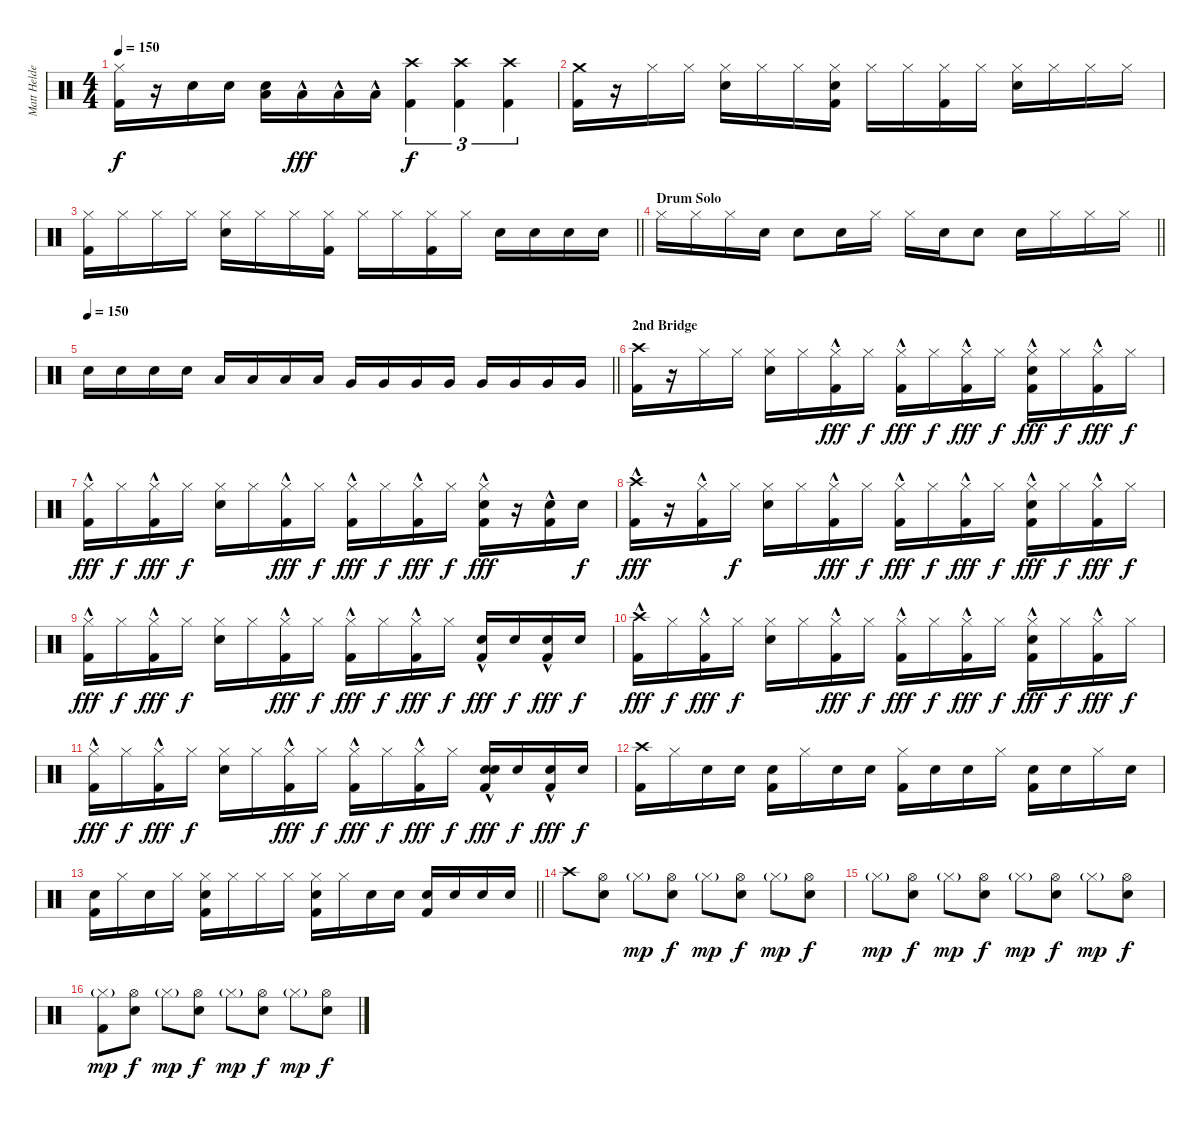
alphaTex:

\track ("Matt Helders" "Matt Helde") {instrument percussion}
\staff {score}
\articulation defaults
\ts (4 4)
\tempo 150
\clef neutral
\ks c
("Hi-Hat (closed)" "Kick (hit) 2").16{dy f} r.16 "Snare (hit) 2".16 "Snare (hit) 2".16 ("Low Tom (hit)" "Snare (hit) 2").16 "Low Tom (hit)"{hac}.16{dy fff} "Low Tom (hit)"{hac}.16 "Low Tom (hit)"{hac}.16 ("Kick (hit) 2" "Crash high (hit)").4{tu (3 2) dy f} ("Kick (hit) 2" "Crash high (hit)").4{tu (3 2)} ("Kick (hit) 2" "Crash high (hit)").4{tu (3 2)} |
("Crash medium (hit)" "Kick (hit) 2").16 r.16 "Hi-Hat (closed)".16 "Hi-Hat (closed)".16 ("Hi-Hat (closed)" "Snare (hit) 2").16 "Hi-Hat (closed)".16 "Hi-Hat (closed)".16 ("Hi-Hat (closed)" "Snare (hit) 2" "Kick (hit) 2").16 "Hi-Hat (closed)".16 "Hi-Hat (closed)".16 ("Hi-Hat (closed)" "Kick (hit) 2").16 "Hi-Hat (closed)".16 ("Hi-Hat (closed)" "Snare (hit) 2").16 "Hi-Hat (closed)".16 "Hi-Hat (closed)".16 "Hi-Hat (closed)".16 |
\barLineRight lightlight
("Hi-Hat (closed)" "Kick (hit) 2").16 "Hi-Hat (closed)".16 "Hi-Hat (closed)".16 "Hi-Hat (closed)".16 ("Hi-Hat (closed)" "Snare (hit) 2").16 "Hi-Hat (closed)".16 "Hi-Hat (closed)".16 ("Hi-Hat (closed)" "Kick (hit) 2").16 "Hi-Hat (closed)".16 "Hi-Hat (closed)".16 ("Hi-Hat (closed)" "Kick (hit) 2").16 "Hi-Hat (closed)".16 "Snare (hit) 2".16 "Snare (hit) 2".16 "Snare (hit) 2".16 "Snare (hit) 2".16 |
\section ("" "Drum Solo")
\barLineRight lightlight "Hi-Hat (closed)".16 "Hi-Hat (closed)".16 "Hi-Hat (closed)".16 "Snare (hit) 2".16 "Snare (hit) 2".8 "Snare (hit) 2".16 "Hi-Hat (closed)".16 "Hi-Hat (closed)".16 "Snare (hit) 2".16 "Snare (hit) 2".8 "Snare (hit) 2".16 "Hi-Hat (closed)".16 "Hi-Hat (closed)".16 "Hi-Hat (closed)".16
|
\tempo 150
\barLineRight lightlight "Snare (hit) 2".16 "Snare (hit) 2".16 "Snare (hit) 2".16 "Snare (hit) 2".16 "Low Tom (hit)".16 "Low Tom (hit)".16 "Low Tom (hit)".16 "Low Tom (hit)".16 "Very Low Tom (hit)".16 "Very Low Tom (hit)".16 "Very Low Tom (hit)".16 "Very Low Tom (hit)".16 "Very Low Tom (hit)".16 "Very Low Tom (hit)".16 "Very Low Tom (hit)".16 "Very Low Tom (hit)".16
|
\section ("" "2nd Bridge")
("Crash high (hit)" "Kick (hit) 2").16 r.16 "Hi-Hat (closed)".16 "Hi-Hat (closed)".16 ("Hi-Hat (closed)" "Snare (hit) 2").16 "Hi-Hat (closed)".16 ("Hi-Hat (closed)" "Kick (hit) 2"{hac}).16{dy fff} "Hi-Hat (closed)".16{dy f} ("Hi-Hat (closed)" "Kick (hit) 2"{hac}).16{dy fff} "Hi-Hat (closed)".16{dy f} ("Hi-Hat (closed)" "Kick (hit) 2"{hac}).16{dy fff} "Hi-Hat (closed)".16{dy f} ("Hi-Hat (closed)" "Snare (hit) 2" "Kick (hit) 2"{hac}).16{dy fff} "Hi-Hat (closed)".16{dy f} ("Hi-Hat (closed)" "Kick (hit) 2"{hac}).16{dy fff} "Hi-Hat (closed)".16{dy f} |
("Hi-Hat (closed)" "Kick (hit) 2"{hac}).16{dy fff} "Hi-Hat (closed)".16{dy f} ("Hi-Hat (closed)" "Kick (hit) 2"{hac}).16{dy fff} "Hi-Hat (closed)".16{dy f} ("Hi-Hat (closed)" "Snare (hit) 2").16 "Hi-Hat (closed)".16 ("Hi-Hat (closed)" "Kick (hit) 2"{hac}).16{dy fff} "Hi-Hat (closed)".16{dy f} ("Hi-Hat (closed)" "Kick (hit) 2"{hac}).16{dy fff} "Hi-Hat (closed)".16{dy f} ("Hi-Hat (closed)" "Kick (hit) 2"{hac}).16{dy fff} "Hi-Hat (closed)".16{dy f} ("Hi-Hat (closed)" "Snare (hit) 2" "Kick (hit) 2"{hac}).16{dy fff} r.16 ("Snare (hit) 2" "Kick (hit) 2"{hac}).16 "Snare (hit) 2".16{dy f} |
("Crash high (hit)" "Kick (hit) 2"{hac}).16{dy fff} r.16 ("Hi-Hat (closed)" "Kick (hit) 2"{hac}).16 "Hi-Hat (closed)".16{dy f} ("Hi-Hat (closed)" "Snare (hit) 2").16 "Hi-Hat (closed)".16 ("Hi-Hat (closed)" "Kick (hit) 2"{hac}).16{dy fff} "Hi-Hat (closed)".16{dy f} ("Hi-Hat (closed)" "Kick (hit) 2"{hac}).16{dy fff} "Hi-Hat (closed)".16{dy f} ("Hi-Hat (closed)" "Kick (hit) 2"{hac}).16{dy fff} "Hi-Hat (closed)".16{dy f} ("Hi-Hat (closed)" "Snare (hit) 2" "Kick (hit) 2"{hac}).16{dy fff} "Hi-Hat (closed)".16{dy f} ("Hi-Hat (closed)" "Kick (hit) 2"{hac}).16{dy fff} "Hi-Hat (closed)".16{dy f} |
("Hi-Hat (closed)" "Kick (hit) 2"{hac}).16{dy fff} "Hi-Hat (closed)".16{dy f} ("Hi-Hat (closed)" "Kick (hit) 2"{hac}).16{dy fff} "Hi-Hat (closed)".16{dy f} ("Hi-Hat (closed)" "Snare (hit) 2").16 "Hi-Hat (closed)".16 ("Hi-Hat (closed)" "Kick (hit) 2"{hac}).16{dy fff} "Hi-Hat (closed)".16{dy f} ("Hi-Hat (closed)" "Kick (hit) 2"{hac}).16{dy fff} "Hi-Hat (closed)".16{dy f} ("Hi-Hat (closed)" "Kick (hit) 2"{hac}).16{dy fff} "Hi-Hat (closed)".16{dy f} ("Snare (hit) 2" "Kick (hit) 2"{hac}).16{dy fff} "Snare (hit) 2".16{dy f} ("Snare (hit) 2" "Kick (hit) 2"{hac}).16{dy fff} "Snare (hit) 2".16{dy f} |
("Crash high (hit)" "Kick (hit) 2"{hac}).16{dy fff} "Hi-Hat (closed)".16{dy f} ("Hi-Hat (closed)" "Kick (hit) 2"{hac}).16{dy fff} "Hi-Hat (closed)".16{dy f} ("Hi-Hat (closed)" "Snare (hit) 2").16 "Hi-Hat (closed)".16 ("Hi-Hat (closed)" "Kick (hit) 2"{hac}).16{dy fff} "Hi-Hat (closed)".16{dy f} ("Hi-Hat (closed)" "Kick (hit) 2"{hac}).16{dy fff} "Hi-Hat (closed)".16{dy f} ("Hi-Hat (closed)" "Kick (hit) 2"{hac}).16{dy fff} "Hi-Hat (closed)".16{dy f} ("Hi-Hat (closed)" "Snare (hit) 2" "Kick (hit) 2"{hac}).16{dy fff} "Hi-Hat (closed)".16{dy f} ("Hi-Hat (closed)" "Kick (hit) 2"{hac}).16{dy fff} "Hi-Hat (closed)".16{dy f} |
("Hi-Hat (closed)" "Kick (hit) 2"{hac}).16{dy fff} "Hi-Hat (closed)".16{dy f} ("Hi-Hat (closed)" "Kick (hit) 2"{hac}).16{dy fff} "Hi-Hat (closed)".16{dy f} ("Hi-Hat (closed)" "Snare (hit) 2").16 "Hi-Hat (closed)".16 ("Hi-Hat (closed)" "Kick (hit) 2"{hac}).16{dy fff} "Hi-Hat (closed)".16{dy f} ("Hi-Hat (closed)" "Kick (hit) 2"{hac}).16{dy fff} "Hi-Hat (closed)".16{dy f} ("Hi-Hat (closed)" "Kick (hit) 2"{hac}).16{dy fff} "Hi-Hat (closed)".16{dy f} ("Snare (hit) 2" "Snare (hit) 2" "Kick (hit) 2"{hac}).16{dy fff} "Snare (hit) 2".16{dy f} ("Snare (hit) 2" "Kick (hit) 2"{hac}).16{dy fff} "Snare (hit) 2".16{dy f} |
("Crash high (hit)" "Kick (hit) 2").16 "Hi-Hat (closed)".16 "Snare (hit) 2".16 "Snare (hit) 2".16 ("Snare (hit) 2" "Kick (hit) 2").16 "Hi-Hat (closed)".16 "Snare (hit) 2".16 "Snare (hit) 2".16 ("Hi-Hat (closed)" "Kick (hit) 2").16 "Snare (hit) 2".16 "Snare (hit) 2".16 "Hi-Hat (closed)".16 ("Snare (hit) 2" "Kick (hit) 2").16 "Snare (hit) 2".16 "Hi-Hat (closed)".16 "Snare (hit) 2".16 |
\barLineRight lightlight
("Snare (hit) 2" "Kick (hit) 2").16 "Hi-Hat (closed)".16 "Snare (hit) 2".16 "Hi-Hat (closed)".16 ("Hi-Hat (closed)" "Snare (hit) 2" "Kick (hit) 2").16 "Hi-Hat (closed)".16 "Hi-Hat (closed)".16 "Hi-Hat (closed)".16 ("Hi-Hat (closed)" "Snare (hit) 2" "Kick (hit) 2").16 "Hi-Hat (closed)".16 "Snare (hit) 2".16 "Snare (hit) 2".16 ("Snare (hit) 2" "Kick (hit) 2").16 "Snare (hit) 2".16 "Snare (hit) 2".16 "Snare (hit) 2".16 |
"Crash high (hit)".8 ("Hi-Hat (open)" "Snare (hit) 2").8 "Hi-Hat (closed)"{g}.8{dy mp} ("Hi-Hat (open)" "Snare (hit) 2").8{dy f} "Hi-Hat (closed)"{g}.8{dy mp} ("Hi-Hat (open)" "Snare (hit) 2").8{dy f} "Hi-Hat (closed)"{g}.8{dy mp} ("Hi-Hat (open)" "Snare (hit) 2").8{dy f} |
"Hi-Hat (closed)"{g}.8{dy mp} ("Hi-Hat (open)" "Snare (hit) 2").8{dy f} "Hi-Hat (closed)"{g}.8{dy mp} ("Hi-Hat (open)" "Snare (hit) 2").8{dy f} "Hi-Hat (closed)"{g}.8{dy mp} ("Hi-Hat (open)" "Snare (hit) 2").8{dy f} "Hi-Hat (closed)"{g}.8{dy mp} ("Hi-Hat (open)" "Snare (hit) 2").8{dy f} |
("Hi-Hat (closed)"{g} "Kick (hit) 2").8{dy mp} ("Hi-Hat (open)" "Snare (hit) 2").8{dy f} "Hi-Hat (closed)"{g}.8{dy mp} ("Hi-Hat (open)" "Snare (hit) 2").8{dy f} "Hi-Hat (closed)"{g}.8{dy mp} ("Hi-Hat (open)" "Snare (hit) 2").8{dy f} "Hi-Hat (closed)"{g}.8{dy mp} ("Hi-Hat (open)" "Snare (hit) 2").8{dy f}
